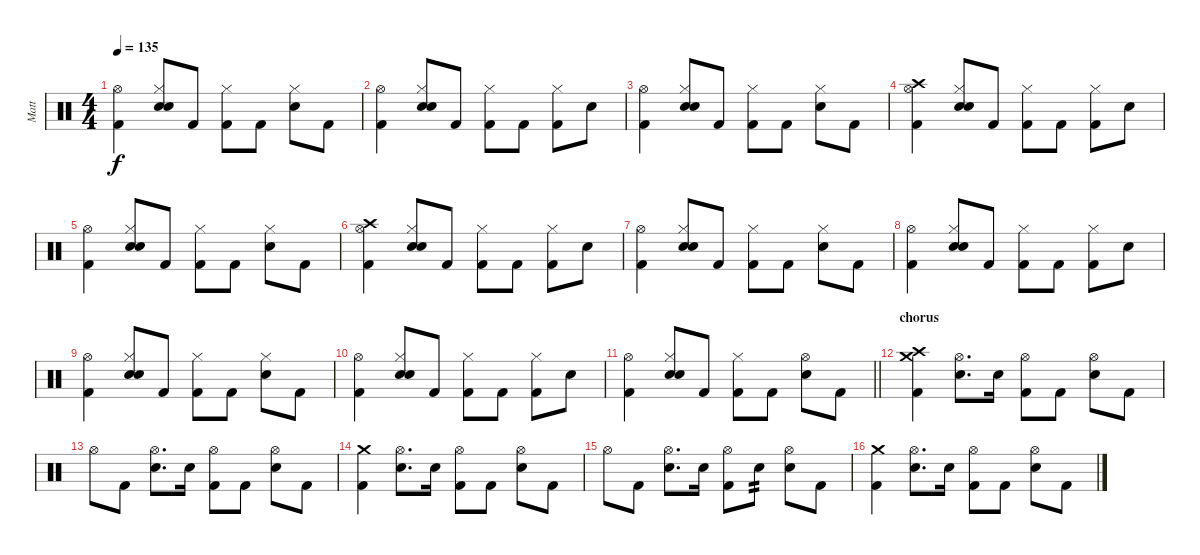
\track ("Matt" "Matt") {instrument percussion}
\staff {score}
\articulation defaults
\ts (4 4)
\tempo 135
\clef neutral
\ks c
("Hi-Hat (open)" "Kick (hit) 2").4{dy f} ("Hand Clap (hit)" "Hi-Hat (closed)" "Snare (hit) 2").8 "Kick (hit) 2".8 ("Hi-Hat (closed)" "Kick (hit) 2").8 "Kick (hit) 2".8 ("Hi-Hat (closed)" "Snare (hit) 2").8 "Kick (hit) 2".8 |
("Hi-Hat (open)" "Kick (hit) 2").4 ("Hand Clap (hit)" "Hi-Hat (closed)" "Snare (hit) 2").8 "Kick (hit) 2".8 ("Hi-Hat (closed)" "Kick (hit) 2").8 "Kick (hit) 2".8 ("Hi-Hat (closed)" "Kick (hit) 2").8 "Snare (hit) 2".8 |
("Hi-Hat (open)" "Kick (hit) 2").4 ("Hand Clap (hit)" "Hi-Hat (closed)" "Snare (hit) 2").8 "Kick (hit) 2".8 ("Hi-Hat (closed)" "Kick (hit) 2").8 "Kick (hit) 2".8 ("Hi-Hat (closed)" "Snare (hit) 2").8 "Kick (hit) 2".8 |
("Crash high (hit)" "Hi-Hat (open)" "Kick (hit) 2").4 ("Hand Clap (hit)" "Hi-Hat (closed)" "Snare (hit) 2").8 "Kick (hit) 2".8 ("Hi-Hat (closed)" "Kick (hit) 2").8 "Kick (hit) 2".8 ("Hi-Hat (closed)" "Kick (hit) 2").8 "Snare (hit) 2".8 |
("Hi-Hat (open)" "Kick (hit) 2").4 ("Hand Clap (hit)" "Hi-Hat (closed)" "Snare (hit) 2").8 "Kick (hit) 2".8 ("Hi-Hat (closed)" "Kick (hit) 2").8 "Kick (hit) 2".8 ("Hi-Hat (closed)" "Snare (hit) 2").8 "Kick (hit) 2".8 |
("Crash high (hit)" "Hi-Hat (open)" "Kick (hit) 2").4 ("Hand Clap (hit)" "Hi-Hat (closed)" "Snare (hit) 2").8 "Kick (hit) 2".8 ("Hi-Hat (closed)" "Kick (hit) 2").8 "Kick (hit) 2".8 ("Hi-Hat (closed)" "Kick (hit) 2").8 "Snare (hit) 2".8 |
("Hi-Hat (open)" "Kick (hit) 2").4 ("Hand Clap (hit)" "Hi-Hat (closed)" "Snare (hit) 2").8 "Kick (hit) 2".8 ("Hi-Hat (closed)" "Kick (hit) 2").8 "Kick (hit) 2".8 ("Hi-Hat (closed)" "Snare (hit) 2").8 "Kick (hit) 2".8 |
("Hi-Hat (open)" "Kick (hit) 2").4 ("Hand Clap (hit)" "Hi-Hat (closed)" "Snare (hit) 2").8 "Kick (hit) 2".8 ("Hi-Hat (closed)" "Kick (hit) 2").8 "Kick (hit) 2".8 ("Hi-Hat (closed)" "Kick (hit) 2").8 "Snare (hit) 2".8 |
("Hi-Hat (open)" "Kick (hit) 2").4 ("Hand Clap (hit)" "Hi-Hat (closed)" "Snare (hit) 2").8 "Kick (hit) 2".8 ("Hi-Hat (closed)" "Kick (hit) 2").8 "Kick (hit) 2".8 ("Hi-Hat (closed)" "Snare (hit) 2").8 "Kick (hit) 2".8 |
("Hi-Hat (open)" "Kick (hit) 2").4 ("Hand Clap (hit)" "Hi-Hat (closed)" "Snare (hit) 2").8 "Kick (hit) 2".8 ("Hi-Hat (closed)" "Kick (hit) 2").8 "Kick (hit) 2".8 ("Hi-Hat (closed)" "Kick (hit) 2").8 "Snare (hit) 2".8 |
\barLineRight lightlight
("Hi-Hat (open)" "Kick (hit) 2").4 ("Hand Clap (hit)" "Hi-Hat (closed)" "Snare (hit) 2").8 "Kick (hit) 2".8 ("Hi-Hat (closed)" "Kick (hit) 2").8 "Kick (hit) 2".8 ("Hi-Hat (open)" "Snare (hit) 2").8 "Kick (hit) 2".8 |
\section ("" "chorus")
("Crash high (hit)" "Crash medium (hit)" "Kick (hit) 2").4 ("Hi-Hat (open)" "Snare (hit) 2").8{d} "Snare (hit) 2".16 ("Hi-Hat (open)" "Kick (hit) 2").8 "Kick (hit) 2".8 ("Hi-Hat (open)" "Snare (hit) 2").8 "Kick (hit) 2".8 |
"Hi-Hat (open)".8 "Kick (hit) 2".8 ("Hi-Hat (open)" "Snare (hit) 2").8{d} "Snare (hit) 2".16 ("Hi-Hat (open)" "Kick (hit) 2").8 "Kick (hit) 2".8 ("Hi-Hat (open)" "Snare (hit) 2").8 "Kick (hit) 2".8 |
("Crash medium (hit)" "Kick (hit) 2").4 ("Hi-Hat (open)" "Snare (hit) 2").8{d} "Snare (hit) 2".16 ("Hi-Hat (open)" "Kick (hit) 2").8 "Kick (hit) 2".8 ("Hi-Hat (open)" "Snare (hit) 2").8 "Kick (hit) 2".8 |
"Hi-Hat (open)".8 "Kick (hit) 2".8 ("Hi-Hat (open)" "Snare (hit) 2").8{d} "Snare (hit) 2".16 ("Hi-Hat (open)" "Kick (hit) 2").8 "Snare (hit) 2".8{tp 2} ("Hi-Hat (open)" "Snare (hit) 2").8 "Kick (hit) 2".8 |
("Crash medium (hit)" "Kick (hit) 2").4 ("Hi-Hat (open)" "Snare (hit) 2").8{d} "Snare (hit) 2".16 ("Hi-Hat (open)" "Kick (hit) 2").8 "Kick (hit) 2".8 ("Hi-Hat (open)" "Snare (hit) 2").8 "Kick (hit) 2".8
